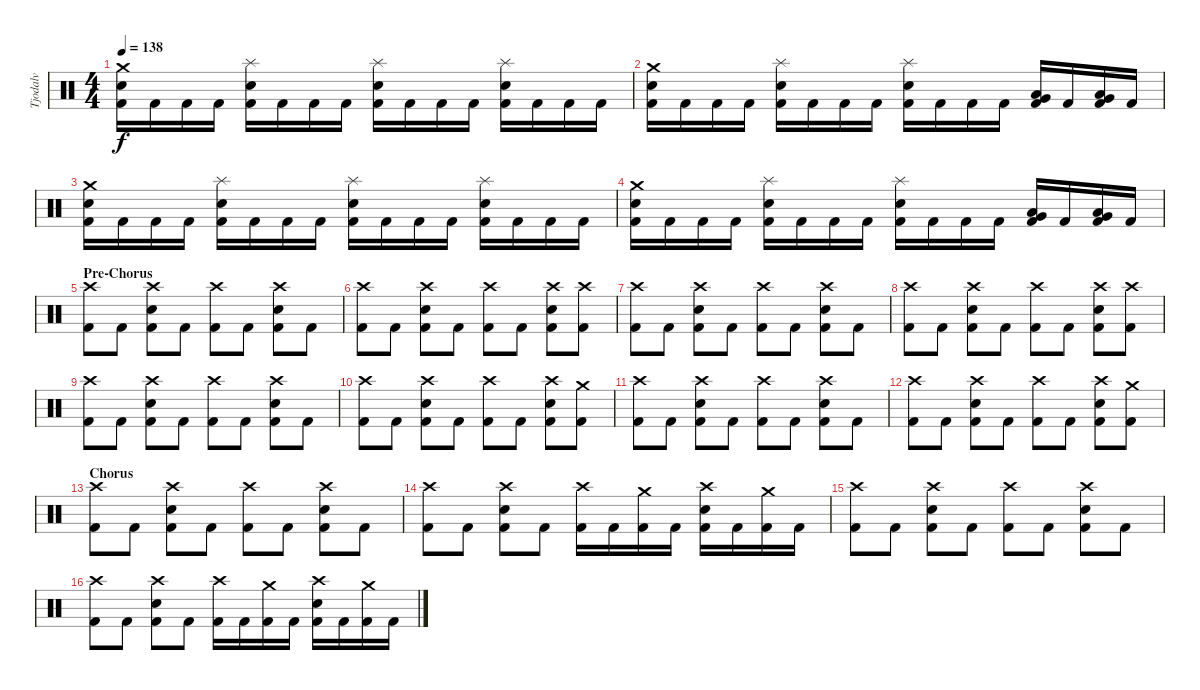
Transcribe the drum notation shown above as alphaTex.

\track ("Tjodalv" "Tjodalv") {instrument percussion}
\staff {score}
\articulation defaults
\ts (4 4)
\tempo 138
\clef neutral
\ks c
("Crash medium (hit)" "Snare (hit) 2" "Kick (hit) 2").16{dy f} "Kick (hit) 2".16 "Kick (hit) 2".16 "Kick (hit) 2".16 ("Splash (hit)" "Snare (hit) 2" "Kick (hit) 2").16 "Kick (hit) 2".16 "Kick (hit) 2".16 "Kick (hit) 2".16 ("Splash (hit)" "Snare (hit) 2" "Kick (hit) 2").16 "Kick (hit) 2".16 "Kick (hit) 2".16 "Kick (hit) 2".16 ("Splash (hit)" "Snare (hit) 2" "Kick (hit) 2").16 "Kick (hit) 2".16 "Kick (hit) 2".16 "Kick (hit) 2".16 |
("Crash medium (hit)" "Snare (hit) 2" "Kick (hit) 2").16 "Kick (hit) 2".16 "Kick (hit) 2".16 "Kick (hit) 2".16 ("Splash (hit)" "Snare (hit) 2" "Kick (hit) 2").16 "Kick (hit) 2".16 "Kick (hit) 2".16 "Kick (hit) 2".16 ("Splash (hit)" "Snare (hit) 2" "Kick (hit) 2").16 "Kick (hit) 2".16 "Kick (hit) 2".16 "Kick (hit) 2".16 ("Low Tom (hit)" "Very Low Tom (hit)" "Kick (hit) 2").16 "Kick (hit) 2".16 ("Low Floor Tom (hit)" "Very Low Tom (hit)" "Kick (hit) 2").16 "Kick (hit) 2".16 |
("Crash medium (hit)" "Snare (hit) 2" "Kick (hit) 2").16 "Kick (hit) 2".16 "Kick (hit) 2".16 "Kick (hit) 2".16 ("Splash (hit)" "Snare (hit) 2" "Kick (hit) 2").16 "Kick (hit) 2".16 "Kick (hit) 2".16 "Kick (hit) 2".16 ("Splash (hit)" "Snare (hit) 2" "Kick (hit) 2").16 "Kick (hit) 2".16 "Kick (hit) 2".16 "Kick (hit) 2".16 ("Splash (hit)" "Snare (hit) 2" "Kick (hit) 2").16 "Kick (hit) 2".16 "Kick (hit) 2".16 "Kick (hit) 2".16 |
("Crash medium (hit)" "Snare (hit) 2" "Kick (hit) 2").16 "Kick (hit) 2".16 "Kick (hit) 2".16 "Kick (hit) 2".16 ("Splash (hit)" "Snare (hit) 2" "Kick (hit) 2").16 "Kick (hit) 2".16 "Kick (hit) 2".16 "Kick (hit) 2".16 ("Splash (hit)" "Snare (hit) 2" "Kick (hit) 2").16 "Kick (hit) 2".16 "Kick (hit) 2".16 "Kick (hit) 2".16 ("Low Tom (hit)" "Very Low Tom (hit)" "Kick (hit) 2").16 "Kick (hit) 2".16 ("Low Floor Tom (hit)" "Very Low Tom (hit)" "Kick (hit) 2").16 "Kick (hit) 2".16 |
\section ("" "Pre-Chorus")
("Crash high (hit)" "Kick (hit) 2").8 "Kick (hit) 2".8 ("Crash high (hit)" "Snare (hit) 2" "Kick (hit) 2").8 "Kick (hit) 2".8 ("Crash high (hit)" "Kick (hit) 2").8 "Kick (hit) 2".8 ("Crash high (hit)" "Snare (hit) 2" "Kick (hit) 2").8 "Kick (hit) 2".8 |
("Crash high (hit)" "Kick (hit) 2").8 "Kick (hit) 2".8 ("Crash high (hit)" "Snare (hit) 2" "Kick (hit) 2").8 "Kick (hit) 2".8 ("Crash high (hit)" "Kick (hit) 2").8 "Kick (hit) 2".8 ("Crash high (hit)" "Snare (hit) 2" "Kick (hit) 2").8 ("Crash high (hit)" "Kick (hit) 2").8 |
("Crash high (hit)" "Kick (hit) 2").8 "Kick (hit) 2".8 ("Crash high (hit)" "Snare (hit) 2" "Kick (hit) 2").8 "Kick (hit) 2".8 ("Crash high (hit)" "Kick (hit) 2").8 "Kick (hit) 2".8 ("Crash high (hit)" "Snare (hit) 2" "Kick (hit) 2").8 "Kick (hit) 2".8 |
("Crash high (hit)" "Kick (hit) 2").8 "Kick (hit) 2".8 ("Crash high (hit)" "Snare (hit) 2" "Kick (hit) 2").8 "Kick (hit) 2".8 ("Crash high (hit)" "Kick (hit) 2").8 "Kick (hit) 2".8 ("Crash high (hit)" "Snare (hit) 2" "Kick (hit) 2").8 ("Crash high (hit)" "Kick (hit) 2").8 |
("Crash high (hit)" "Kick (hit) 2").8 "Kick (hit) 2".8 ("Crash high (hit)" "Snare (hit) 2" "Kick (hit) 2").8 "Kick (hit) 2".8 ("Crash high (hit)" "Kick (hit) 2").8 "Kick (hit) 2".8 ("Crash high (hit)" "Snare (hit) 2" "Kick (hit) 2").8 "Kick (hit) 2".8 |
("Crash high (hit)" "Kick (hit) 2").8 "Kick (hit) 2".8 ("Crash high (hit)" "Snare (hit) 2" "Kick (hit) 2").8 "Kick (hit) 2".8 ("Crash high (hit)" "Kick (hit) 2").8 "Kick (hit) 2".8 ("Crash high (hit)" "Snare (hit) 2" "Kick (hit) 2").8 ("Crash medium (hit)" "Kick (hit) 2").8 |
("Crash high (hit)" "Kick (hit) 2").8 "Kick (hit) 2".8 ("Crash high (hit)" "Snare (hit) 2" "Kick (hit) 2").8 "Kick (hit) 2".8 ("Crash high (hit)" "Kick (hit) 2").8 "Kick (hit) 2".8 ("Crash high (hit)" "Snare (hit) 2" "Kick (hit) 2").8 "Kick (hit) 2".8 |
("Crash high (hit)" "Kick (hit) 2").8 "Kick (hit) 2".8 ("Crash high (hit)" "Snare (hit) 2" "Kick (hit) 2").8 "Kick (hit) 2".8 ("Crash high (hit)" "Kick (hit) 2").8 "Kick (hit) 2".8 ("Crash high (hit)" "Snare (hit) 2" "Kick (hit) 2").8 ("Crash medium (hit)" "Kick (hit) 2").8 |
\section ("" "Chorus")
("Crash high (hit)" "Kick (hit) 2").8 "Kick (hit) 2".8 ("Crash high (hit)" "Snare (hit) 2" "Kick (hit) 2").8 "Kick (hit) 2".8 ("Crash high (hit)" "Kick (hit) 2").8 "Kick (hit) 2".8 ("Crash high (hit)" "Snare (hit) 2" "Kick (hit) 2").8 "Kick (hit) 2".8 |
("Crash high (hit)" "Kick (hit) 2").8 "Kick (hit) 2".8 ("Crash high (hit)" "Snare (hit) 2" "Kick (hit) 2").8 "Kick (hit) 2".8 ("Crash high (hit)" "Kick (hit) 2").16 "Kick (hit) 2".16 ("Crash medium (hit)" "Kick (hit) 2").16 "Kick (hit) 2".16 ("Crash high (hit)" "Snare (hit) 2" "Kick (hit) 2").16 "Kick (hit) 2".16 ("Crash medium (hit)" "Kick (hit) 2").16 "Kick (hit) 2".16 |
("Crash high (hit)" "Kick (hit) 2").8 "Kick (hit) 2".8 ("Crash high (hit)" "Snare (hit) 2" "Kick (hit) 2").8 "Kick (hit) 2".8 ("Crash high (hit)" "Kick (hit) 2").8 "Kick (hit) 2".8 ("Crash high (hit)" "Snare (hit) 2" "Kick (hit) 2").8 "Kick (hit) 2".8 |
("Crash high (hit)" "Kick (hit) 2").8 "Kick (hit) 2".8 ("Crash high (hit)" "Snare (hit) 2" "Kick (hit) 2").8 "Kick (hit) 2".8 ("Crash high (hit)" "Kick (hit) 2").16 "Kick (hit) 2".16 ("Crash medium (hit)" "Kick (hit) 2").16 "Kick (hit) 2".16 ("Crash high (hit)" "Snare (hit) 2" "Kick (hit) 2").16 "Kick (hit) 2".16 ("Crash medium (hit)" "Kick (hit) 2").16 "Kick (hit) 2".16
